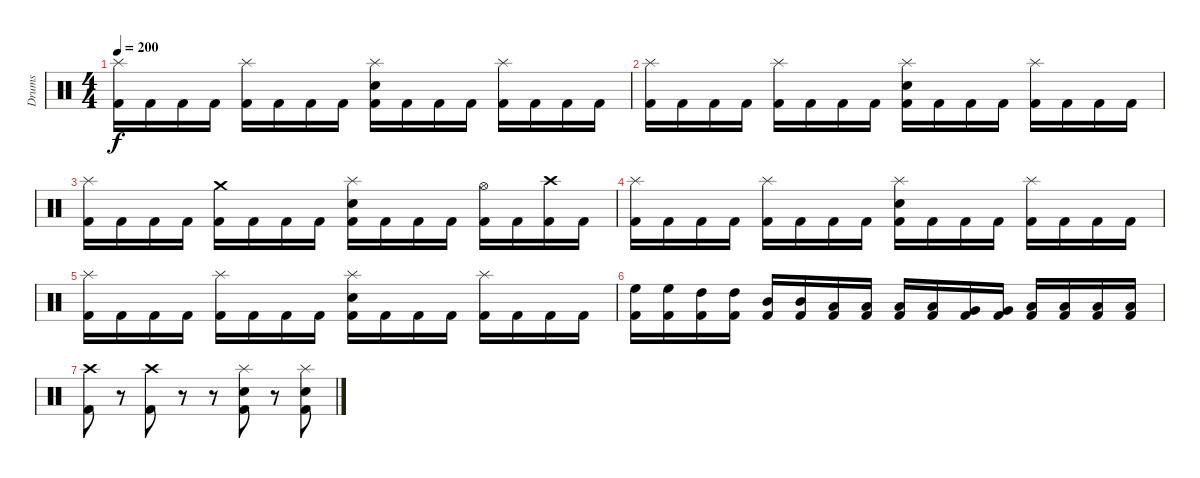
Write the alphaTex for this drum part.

\track ("Drums" "Drums") {instrument percussion}
\staff {score}
\articulation defaults
\ts (4 4)
\tempo 200
\clef neutral
\ks c
("Splash (hit)" "Kick (hit) 2").16{dy f} "Kick (hit) 2".16 "Kick (hit) 2".16 "Kick (hit) 2".16 ("Splash (hit)" "Kick (hit) 2").16 "Kick (hit) 2".16 "Kick (hit) 2".16 "Kick (hit) 2".16 ("Splash (hit)" "Electric Snare (hit)" "Kick (hit) 2").16 "Kick (hit) 2".16 "Kick (hit) 2".16 "Kick (hit) 2".16 ("Splash (hit)" "Kick (hit) 2").16 "Kick (hit) 2".16 "Kick (hit) 2".16 "Kick (hit) 2".16 |
("Splash (hit)" "Kick (hit) 2").16 "Kick (hit) 2".16 "Kick (hit) 2".16 "Kick (hit) 2".16 ("Splash (hit)" "Kick (hit) 2").16 "Kick (hit) 2".16 "Kick (hit) 2".16 "Kick (hit) 2".16 ("Splash (hit)" "Electric Snare (hit)" "Kick (hit) 2").16 "Kick (hit) 2".16 "Kick (hit) 2".16 "Kick (hit) 2".16 ("Splash (hit)" "Kick (hit) 2").16 "Kick (hit) 2".16 "Kick (hit) 2".16 "Kick (hit) 2".16 |
("Splash (hit)" "Kick (hit) 2").16 "Kick (hit) 2".16 "Kick (hit) 2".16 "Kick (hit) 2".16 ("Crash medium (hit)" "Kick (hit) 2").16 "Kick (hit) 2".16 "Kick (hit) 2".16 "Kick (hit) 2".16 ("Splash (hit)" "Electric Snare (hit)" "Kick (hit) 2").16 "Kick (hit) 2".16 "Kick (hit) 2".16 "Kick (hit) 2".16 ("Hi-Hat (open)" "Kick (hit) 2").16 "Kick (hit) 2".16 ("Crash high (hit)" "Kick (hit) 2").16 "Kick (hit) 2".16 |
("Splash (hit)" "Kick (hit) 2").16 "Kick (hit) 2".16 "Kick (hit) 2".16 "Kick (hit) 2".16 ("Splash (hit)" "Kick (hit) 2").16 "Kick (hit) 2".16 "Kick (hit) 2".16 "Kick (hit) 2".16 ("Splash (hit)" "Electric Snare (hit)" "Kick (hit) 2").16 "Kick (hit) 2".16 "Kick (hit) 2".16 "Kick (hit) 2".16 ("Splash (hit)" "Kick (hit) 2").16 "Kick (hit) 2".16 "Kick (hit) 2".16 "Kick (hit) 2".16 |
("Splash (hit)" "Kick (hit) 2").16 "Kick (hit) 2".16 "Kick (hit) 2".16 "Kick (hit) 2".16 ("Splash (hit)" "Kick (hit) 2").16 "Kick (hit) 2".16 "Kick (hit) 2".16 "Kick (hit) 2".16 ("Splash (hit)" "Electric Snare (hit)" "Kick (hit) 2").16 "Kick (hit) 2".16 "Kick (hit) 2".16 "Kick (hit) 2".16 ("Splash (hit)" "Kick (hit) 2").16 "Kick (hit) 2".16 "Kick (hit) 2".16 "Kick (hit) 2".16 |
("High Floor Tom (hit)" "Kick (hit) 2").16 ("High Floor Tom (hit)" "Kick (hit) 2").16 ("High Tom (hit)" "Kick (hit) 2").16 ("High Tom (hit)" "Kick (hit) 2").16 ("Mid Tom (hit)" "Kick (hit) 2").16 ("Mid Tom (hit)" "Kick (hit) 2").16 ("Low Tom (hit)" "Kick (hit) 2").16 ("Low Tom (hit)" "Kick (hit) 2").16 ("Low Tom (hit)" "Kick (hit) 2").16 ("Low Tom (hit)" "Kick (hit) 2").16 ("Very Low Tom (hit)" "Kick (hit) 2").16 ("Very Low Tom (hit)" "Kick (hit) 2").16 ("Low Floor Tom (hit)" "Kick (hit) 2").16 ("Low Floor Tom (hit)" "Kick (hit) 2").16 ("Low Floor Tom (hit)" "Kick (hit) 2").16 ("Low Floor Tom (hit)" "Kick (hit) 2").16 |
("Crash high (hit)" "Kick (hit) 2").8 r.8 ("Crash high (hit)" "Kick (hit) 2").8 r.8 r.8 ("Splash (hit)" "Electric Snare (hit)" "Kick (hit) 2").8 r.8 ("Splash (hit)" "Electric Snare (hit)" "Kick (hit) 2").8
